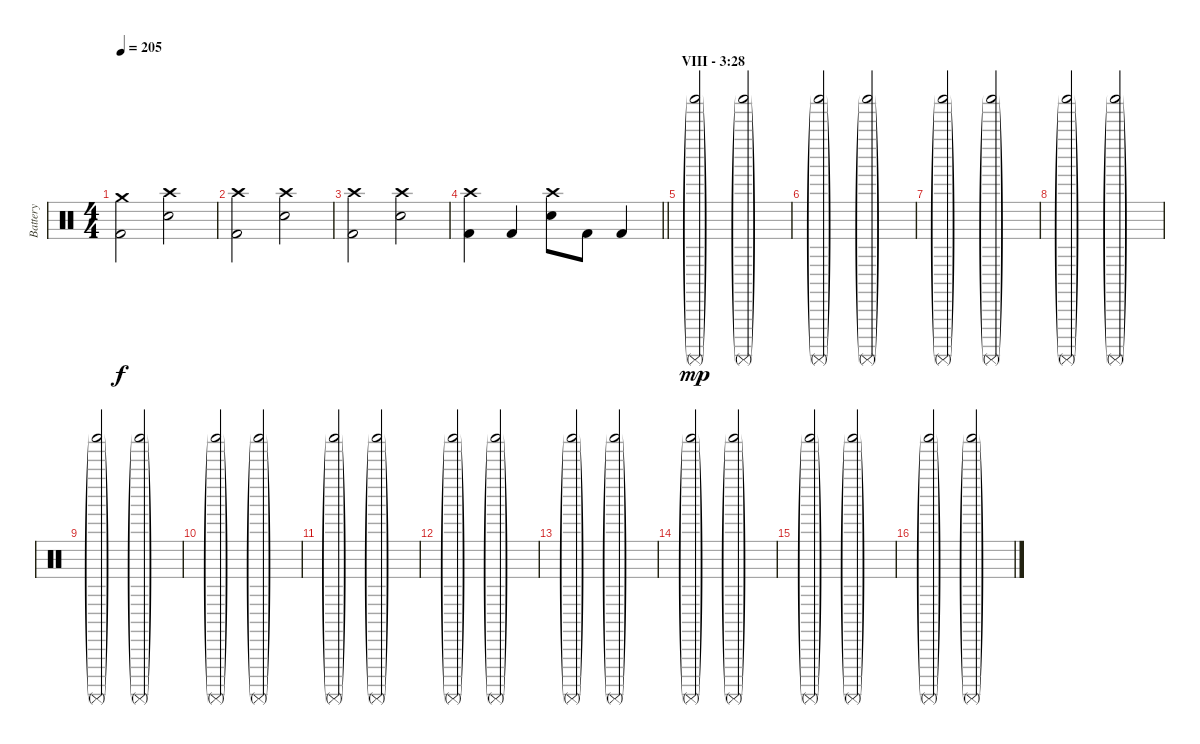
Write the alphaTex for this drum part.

\track ("Battery" "Battery") {instrument percussion}
\staff {score}
\articulation defaults
\ts (4 4)
\tempo 205
\clef neutral
\ks c
("Crash medium (hit)" "Kick (hit) 2").2{dy f} ("Crash high (hit)" "Electric Snare (hit)").2 |
("Crash high (hit)" "Kick (hit) 2").2 ("Crash high (hit)" "Electric Snare (hit)").2 |
("Crash high (hit)" "Kick (hit) 2").2 ("Crash high (hit)" "Electric Snare (hit)").2 |
\barLineRight lightlight
("Crash high (hit)" "Kick (hit) 2").4 "Kick (hit) 2".4 ("Crash high (hit)" "Electric Snare (hit)").8 "Kick (hit) 2".8 "Kick (hit) 2".4 |
\section ("" "VIII - 3:28")
("Shaker (hit)"{g} "Surdo (mute)"{g}).2{dy mp} ("Shaker (hit)"{g} "Surdo (mute)"{g}).2 |
("Shaker (hit)"{g} "Surdo (mute)"{g}).2 ("Shaker (hit)"{g} "Surdo (mute)"{g}).2 |
("Shaker (hit)"{g} "Surdo (mute)"{g}).2 ("Shaker (hit)"{g} "Surdo (mute)"{g}).2 |
("Shaker (hit)"{g} "Surdo (mute)"{g}).2 ("Shaker (hit)"{g} "Surdo (mute)"{g}).2 |
("Shaker (hit)"{g} "Surdo (mute)"{g}).2 ("Shaker (hit)"{g} "Surdo (mute)"{g}).2 |
("Shaker (hit)"{g} "Surdo (mute)"{g}).2 ("Shaker (hit)"{g} "Surdo (mute)"{g}).2 |
("Shaker (hit)"{g} "Surdo (mute)"{g}).2 ("Shaker (hit)"{g} "Surdo (mute)"{g}).2 |
("Shaker (hit)"{g} "Surdo (mute)"{g}).2 ("Shaker (hit)"{g} "Surdo (mute)"{g}).2 |
("Shaker (hit)"{g} "Surdo (mute)"{g}).2 ("Shaker (hit)"{g} "Surdo (mute)"{g}).2 |
("Shaker (hit)"{g} "Surdo (mute)"{g}).2 ("Shaker (hit)"{g} "Surdo (mute)"{g}).2 |
("Shaker (hit)"{g} "Surdo (mute)"{g}).2 ("Shaker (hit)"{g} "Surdo (mute)"{g}).2 |
("Shaker (hit)"{g} "Surdo (mute)"{g}).2 ("Shaker (hit)"{g} "Surdo (mute)"{g}).2
